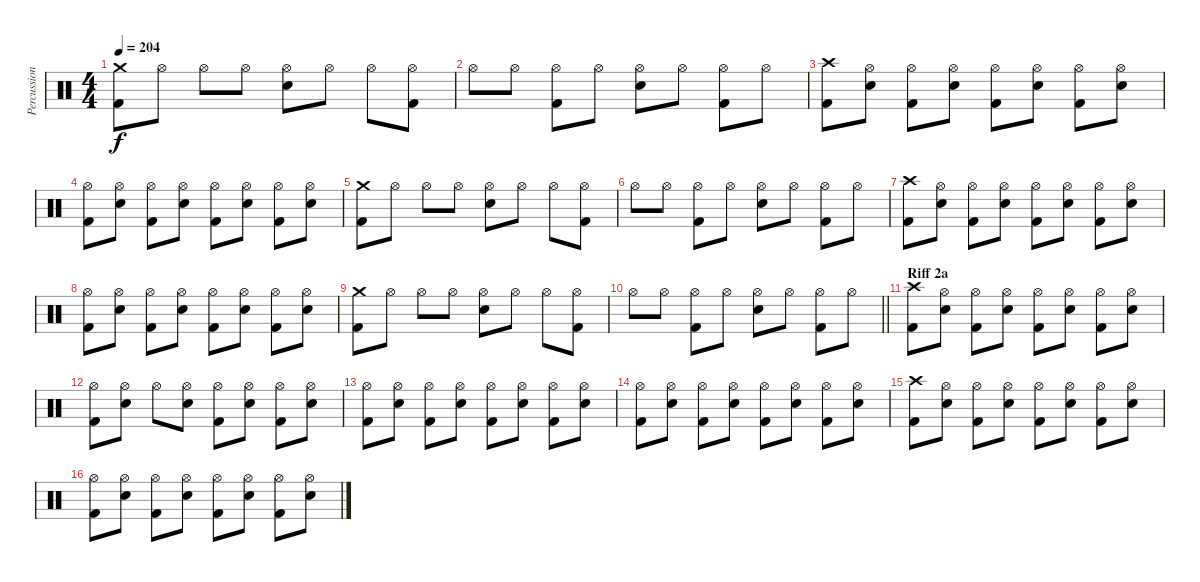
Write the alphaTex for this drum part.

\track ("Percussions" "Percussion") {instrument percussion}
\staff {score}
\articulation defaults
\ts (4 4)
\tempo 204
\clef neutral
\ks c
("Crash medium (hit)" "Kick (hit) 2").8{dy f} "Hi-Hat (open)".8 "Hi-Hat (open)".8 "Hi-Hat (open)".8 ("Hi-Hat (open)" "Electric Snare (hit)").8 "Hi-Hat (open)".8 "Hi-Hat (open)".8 ("Hi-Hat (open)" "Kick (hit) 2").8 |
"Hi-Hat (open)".8 "Hi-Hat (open)".8 ("Hi-Hat (open)" "Kick (hit) 2").8 "Hi-Hat (open)".8 ("Hi-Hat (open)" "Electric Snare (hit)").8 "Hi-Hat (open)".8 ("Hi-Hat (open)" "Kick (hit) 2").8 "Hi-Hat (open)".8 |
("Crash high (hit)" "Kick (hit) 2").8 ("Hi-Hat (open)" "Electric Snare (hit)").8 ("Hi-Hat (open)" "Kick (hit) 2").8 ("Hi-Hat (open)" "Electric Snare (hit)").8 ("Hi-Hat (open)" "Kick (hit) 2").8 ("Hi-Hat (open)" "Electric Snare (hit)").8 ("Hi-Hat (open)" "Kick (hit) 2").8 ("Hi-Hat (open)" "Electric Snare (hit)").8 |
("Hi-Hat (open)" "Kick (hit) 2").8 ("Hi-Hat (open)" "Electric Snare (hit)").8 ("Hi-Hat (open)" "Kick (hit) 2").8 ("Hi-Hat (open)" "Electric Snare (hit)").8 ("Hi-Hat (open)" "Kick (hit) 2").8 ("Hi-Hat (open)" "Electric Snare (hit)").8 ("Hi-Hat (open)" "Kick (hit) 2").8 ("Hi-Hat (open)" "Electric Snare (hit)").8 |
("Crash medium (hit)" "Kick (hit) 2").8 "Hi-Hat (open)".8 "Hi-Hat (open)".8 "Hi-Hat (open)".8 ("Hi-Hat (open)" "Electric Snare (hit)").8 "Hi-Hat (open)".8 "Hi-Hat (open)".8 ("Hi-Hat (open)" "Kick (hit) 2").8 |
"Hi-Hat (open)".8 "Hi-Hat (open)".8 ("Hi-Hat (open)" "Kick (hit) 2").8 "Hi-Hat (open)".8 ("Hi-Hat (open)" "Electric Snare (hit)").8 "Hi-Hat (open)".8 ("Hi-Hat (open)" "Kick (hit) 2").8 "Hi-Hat (open)".8 |
("Crash high (hit)" "Kick (hit) 2").8 ("Hi-Hat (open)" "Electric Snare (hit)").8 ("Hi-Hat (open)" "Kick (hit) 2").8 ("Hi-Hat (open)" "Electric Snare (hit)").8 ("Hi-Hat (open)" "Kick (hit) 2").8 ("Hi-Hat (open)" "Electric Snare (hit)").8 ("Hi-Hat (open)" "Kick (hit) 2").8 ("Hi-Hat (open)" "Electric Snare (hit)").8 |
("Hi-Hat (open)" "Kick (hit) 2").8 ("Hi-Hat (open)" "Electric Snare (hit)").8 ("Hi-Hat (open)" "Kick (hit) 2").8 ("Hi-Hat (open)" "Electric Snare (hit)").8 ("Hi-Hat (open)" "Kick (hit) 2").8 ("Hi-Hat (open)" "Electric Snare (hit)").8 ("Hi-Hat (open)" "Kick (hit) 2").8 ("Hi-Hat (open)" "Electric Snare (hit)").8 |
("Crash medium (hit)" "Kick (hit) 2").8 "Hi-Hat (open)".8 "Hi-Hat (open)".8 "Hi-Hat (open)".8 ("Hi-Hat (open)" "Electric Snare (hit)").8 "Hi-Hat (open)".8 "Hi-Hat (open)".8 ("Hi-Hat (open)" "Kick (hit) 2").8 |
\barLineRight lightlight "Hi-Hat (open)".8 "Hi-Hat (open)".8
("Hi-Hat (open)" "Kick (hit) 2").8 "Hi-Hat (open)".8 ("Hi-Hat (open)" "Electric Snare (hit)").8 "Hi-Hat (open)".8 ("Hi-Hat (open)" "Kick (hit) 2").8 "Hi-Hat (open)".8 |
\section ("" "Riff 2a")
("Crash high (hit)" "Kick (hit) 2").8 ("Hi-Hat (open)" "Electric Snare (hit)").8 ("Hi-Hat (open)" "Kick (hit) 2").8 ("Hi-Hat (open)" "Electric Snare (hit)").8 ("Hi-Hat (open)" "Kick (hit) 2").8 ("Hi-Hat (open)" "Electric Snare (hit)").8 ("Hi-Hat (open)" "Kick (hit) 2").8 ("Hi-Hat (open)" "Electric Snare (hit)").8 |
("Hi-Hat (open)" "Kick (hit) 2").8 ("Hi-Hat (open)" "Electric Snare (hit)").8 "Hi-Hat (open)".8 ("Hi-Hat (open)" "Electric Snare (hit)").8 ("Hi-Hat (open)" "Kick (hit) 2").8 ("Hi-Hat (open)" "Electric Snare (hit)").8 ("Hi-Hat (open)" "Kick (hit) 2").8 ("Hi-Hat (open)" "Electric Snare (hit)").8 |
("Hi-Hat (open)" "Kick (hit) 2").8 ("Hi-Hat (open)" "Electric Snare (hit)").8 ("Hi-Hat (open)" "Kick (hit) 2").8 ("Hi-Hat (open)" "Electric Snare (hit)").8 ("Hi-Hat (open)" "Kick (hit) 2").8 ("Hi-Hat (open)" "Electric Snare (hit)").8 ("Hi-Hat (open)" "Kick (hit) 2").8 ("Hi-Hat (open)" "Electric Snare (hit)").8 |
("Hi-Hat (open)" "Kick (hit) 2").8 ("Hi-Hat (open)" "Electric Snare (hit)").8 ("Hi-Hat (open)" "Kick (hit) 2").8 ("Hi-Hat (open)" "Electric Snare (hit)").8 ("Hi-Hat (open)" "Kick (hit) 2").8 ("Hi-Hat (open)" "Electric Snare (hit)").8 ("Hi-Hat (open)" "Kick (hit) 2").8 ("Hi-Hat (open)" "Electric Snare (hit)").8 |
("Crash high (hit)" "Kick (hit) 2").8 ("Hi-Hat (open)" "Electric Snare (hit)").8 ("Hi-Hat (open)" "Kick (hit) 2").8 ("Hi-Hat (open)" "Electric Snare (hit)").8 ("Hi-Hat (open)" "Kick (hit) 2").8 ("Hi-Hat (open)" "Electric Snare (hit)").8 ("Hi-Hat (open)" "Kick (hit) 2").8 ("Hi-Hat (open)" "Electric Snare (hit)").8 |
("Hi-Hat (open)" "Kick (hit) 2").8 ("Hi-Hat (open)" "Electric Snare (hit)").8 ("Hi-Hat (open)" "Kick (hit) 2").8 ("Hi-Hat (open)" "Electric Snare (hit)").8 ("Hi-Hat (open)" "Kick (hit) 2").8 ("Hi-Hat (open)" "Electric Snare (hit)").8 ("Hi-Hat (open)" "Kick (hit) 2").8 ("Hi-Hat (open)" "Electric Snare (hit)").8
